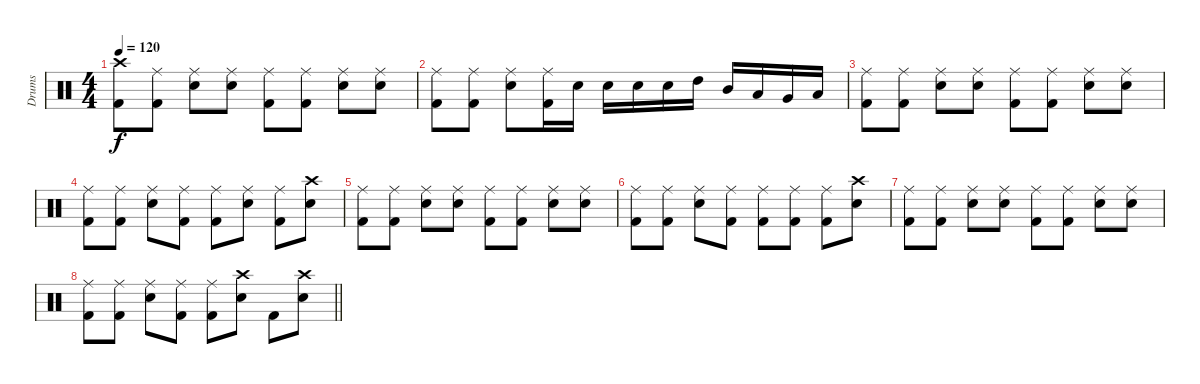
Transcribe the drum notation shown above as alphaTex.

\track ("Drums" "Drums") {instrument percussion}
\staff {score}
\articulation defaults
\ts (4 4)
\tempo 120
\clef neutral
\ks c
("Crash high (hit)" "Kick (hit) 2").8{dy f} ("Ride (middle)" "Kick (hit) 2").8 ("Ride (middle)" "Snare (hit) 2").8 ("Ride (middle)" "Snare (hit) 2").8 ("Ride (middle)" "Kick (hit) 2").8 ("Ride (middle)" "Kick (hit) 2").8 ("Ride (middle)" "Snare (hit) 2").8 ("Ride (middle)" "Snare (hit) 2").8 |
("Ride (middle)" "Kick (hit) 2").8 ("Ride (middle)" "Kick (hit) 2").8 ("Ride (middle)" "Snare (hit) 2").8 ("Ride (middle)" "Kick (hit) 2").16 "Snare (hit) 2".16 "Snare (hit) 2".16 "Snare (hit) 2".16 "Snare (hit) 2".16 "High Tom (hit)".16 "Mid Tom (hit)".16 "Low Tom (hit)".16 "Very Low Tom (hit)".16 "Low Floor Tom (hit)".16 |
("Ride (middle)" "Kick (hit) 2").8 ("Ride (middle)" "Kick (hit) 2").8 ("Ride (middle)" "Snare (hit) 2").8 ("Ride (middle)" "Snare (hit) 2").8 ("Ride (middle)" "Kick (hit) 2").8 ("Ride (middle)" "Kick (hit) 2").8 ("Ride (middle)" "Snare (hit) 2").8 ("Ride (middle)" "Snare (hit) 2").8 |
("Ride (middle)" "Kick (hit) 2").8 ("Ride (middle)" "Kick (hit) 2").8 ("Ride (middle)" "Snare (hit) 2").8 ("Ride (middle)" "Kick (hit) 2").8 ("Ride (middle)" "Kick (hit) 2").8 ("Ride (middle)" "Snare (hit) 2").8 ("Ride (middle)" "Kick (hit) 2").8 ("Crash high (hit)" "Snare (hit) 2").8 |
("Ride (middle)" "Kick (hit) 2").8 ("Ride (middle)" "Kick (hit) 2").8 ("Ride (middle)" "Snare (hit) 2").8 ("Ride (middle)" "Snare (hit) 2").8 ("Ride (middle)" "Kick (hit) 2").8 ("Ride (middle)" "Kick (hit) 2").8 ("Ride (middle)" "Snare (hit) 2").8 ("Ride (middle)" "Snare (hit) 2").8 |
("Ride (middle)" "Kick (hit) 2").8 ("Ride (middle)" "Kick (hit) 2").8 ("Ride (middle)" "Snare (hit) 2").8 ("Ride (middle)" "Kick (hit) 2").8 ("Ride (middle)" "Kick (hit) 2").8 ("Ride (middle)" "Kick (hit) 2").8 ("Ride (middle)" "Kick (hit) 2").8 ("Crash high (hit)" "Snare (hit) 2").8 |
("Ride (middle)" "Kick (hit) 2").8 ("Ride (middle)" "Kick (hit) 2").8 ("Ride (middle)" "Snare (hit) 2").8 ("Ride (middle)" "Snare (hit) 2").8 ("Ride (middle)" "Kick (hit) 2").8 ("Ride (middle)" "Kick (hit) 2").8 ("Ride (middle)" "Snare (hit) 2").8 ("Ride (middle)" "Snare (hit) 2").8 |
\barLineRight lightlight
("Ride (middle)" "Kick (hit) 2").8 ("Ride (middle)" "Kick (hit) 2").8 ("Ride (middle)" "Snare (hit) 2").8 ("Ride (middle)" "Kick (hit) 2").8 ("Ride (middle)" "Kick (hit) 2").8 ("Crash high (hit)" "Snare (hit) 2").8 "Kick (hit) 2".8 ("Crash high (hit)" "Snare (hit) 2").8
